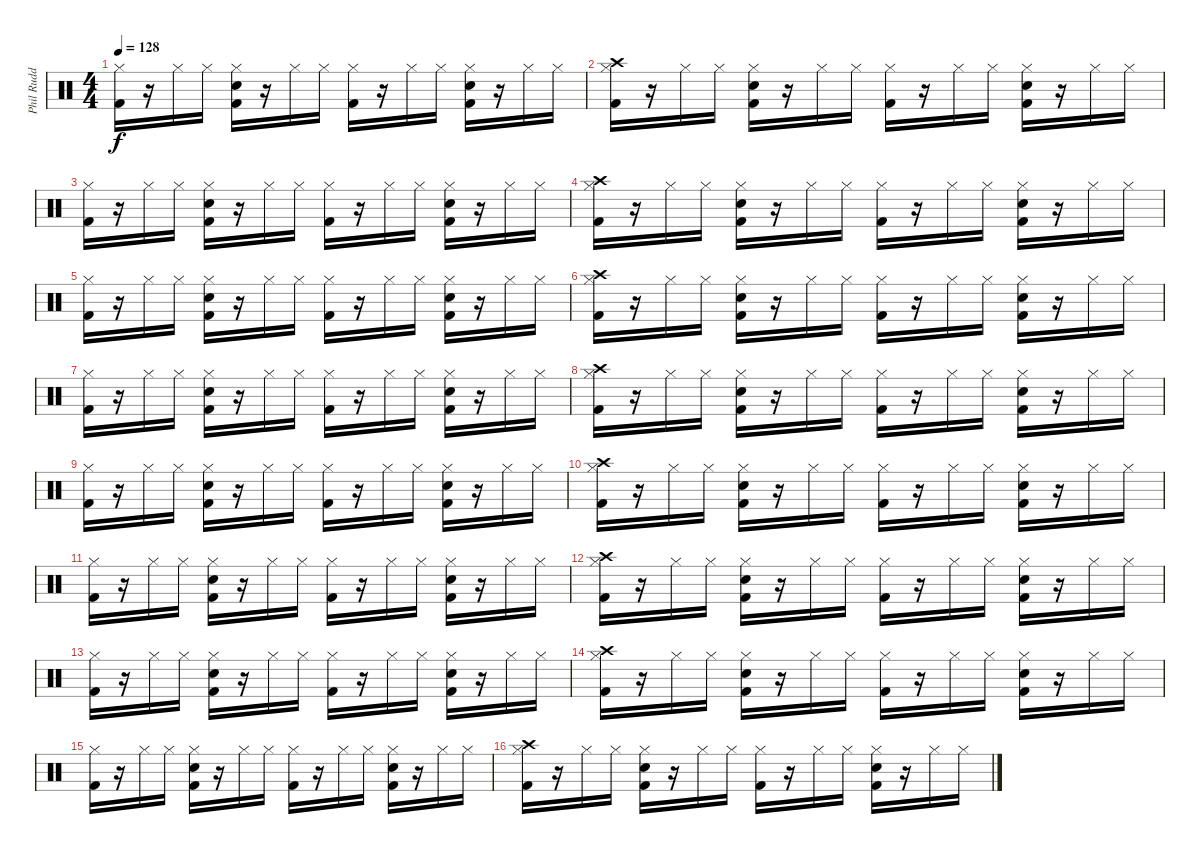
\track ("Phil Rudd" "Phil Rudd") {instrument percussion}
\staff {score}
\articulation defaults
\ts (4 4)
\tempo 128
\clef neutral
\ks c
("Hi-Hat (closed)" "Kick (hit) 2").16{dy f} r.16 "Hi-Hat (closed)".16 "Hi-Hat (closed)".16 ("Hi-Hat (closed)" "Snare (hit) 2" "Kick (hit) 2").16 r.16 "Hi-Hat (closed)".16 "Hi-Hat (closed)".16 ("Hi-Hat (closed)" "Kick (hit) 2").16 r.16 "Hi-Hat (closed)".16 "Hi-Hat (closed)".16 ("Hi-Hat (closed)" "Snare (hit) 2" "Kick (hit) 2").16 r.16 "Hi-Hat (closed)".16 "Hi-Hat (closed)".16 |
("Hi-Hat (closed)" "Crash high (hit)" "Kick (hit) 2").16 r.16 "Hi-Hat (closed)".16 "Hi-Hat (closed)".16 ("Hi-Hat (closed)" "Snare (hit) 2" "Kick (hit) 2").16 r.16 "Hi-Hat (closed)".16 "Hi-Hat (closed)".16 ("Hi-Hat (closed)" "Kick (hit) 2").16 r.16 "Hi-Hat (closed)".16 "Hi-Hat (closed)".16 ("Hi-Hat (closed)" "Snare (hit) 2" "Kick (hit) 2").16 r.16 "Hi-Hat (closed)".16 "Hi-Hat (closed)".16 |
("Hi-Hat (closed)" "Kick (hit) 2").16 r.16 "Hi-Hat (closed)".16 "Hi-Hat (closed)".16 ("Hi-Hat (closed)" "Snare (hit) 2" "Kick (hit) 2").16 r.16 "Hi-Hat (closed)".16 "Hi-Hat (closed)".16 ("Hi-Hat (closed)" "Kick (hit) 2").16 r.16 "Hi-Hat (closed)".16 "Hi-Hat (closed)".16 ("Hi-Hat (closed)" "Snare (hit) 2" "Kick (hit) 2").16 r.16 "Hi-Hat (closed)".16 "Hi-Hat (closed)".16 |
("Hi-Hat (closed)" "Crash high (hit)" "Kick (hit) 2").16 r.16 "Hi-Hat (closed)".16 "Hi-Hat (closed)".16 ("Hi-Hat (closed)" "Snare (hit) 2" "Kick (hit) 2").16 r.16 "Hi-Hat (closed)".16 "Hi-Hat (closed)".16 ("Hi-Hat (closed)" "Kick (hit) 2").16 r.16 "Hi-Hat (closed)".16 "Hi-Hat (closed)".16 ("Hi-Hat (closed)" "Snare (hit) 2" "Kick (hit) 2").16 r.16 "Hi-Hat (closed)".16 "Hi-Hat (closed)".16 |
("Hi-Hat (closed)" "Kick (hit) 2").16 r.16 "Hi-Hat (closed)".16 "Hi-Hat (closed)".16 ("Hi-Hat (closed)" "Snare (hit) 2" "Kick (hit) 2").16 r.16 "Hi-Hat (closed)".16 "Hi-Hat (closed)".16 ("Hi-Hat (closed)" "Kick (hit) 2").16 r.16 "Hi-Hat (closed)".16 "Hi-Hat (closed)".16 ("Hi-Hat (closed)" "Snare (hit) 2" "Kick (hit) 2").16 r.16 "Hi-Hat (closed)".16 "Hi-Hat (closed)".16 |
("Hi-Hat (closed)" "Crash high (hit)" "Kick (hit) 2").16 r.16 "Hi-Hat (closed)".16 "Hi-Hat (closed)".16 ("Hi-Hat (closed)" "Snare (hit) 2" "Kick (hit) 2").16 r.16 "Hi-Hat (closed)".16 "Hi-Hat (closed)".16 ("Hi-Hat (closed)" "Kick (hit) 2").16 r.16 "Hi-Hat (closed)".16 "Hi-Hat (closed)".16 ("Hi-Hat (closed)" "Snare (hit) 2" "Kick (hit) 2").16 r.16 "Hi-Hat (closed)".16 "Hi-Hat (closed)".16 |
("Hi-Hat (closed)" "Kick (hit) 2").16 r.16 "Hi-Hat (closed)".16 "Hi-Hat (closed)".16 ("Hi-Hat (closed)" "Snare (hit) 2" "Kick (hit) 2").16 r.16 "Hi-Hat (closed)".16 "Hi-Hat (closed)".16 ("Hi-Hat (closed)" "Kick (hit) 2").16 r.16 "Hi-Hat (closed)".16 "Hi-Hat (closed)".16 ("Hi-Hat (closed)" "Snare (hit) 2" "Kick (hit) 2").16 r.16 "Hi-Hat (closed)".16 "Hi-Hat (closed)".16 |
("Hi-Hat (closed)" "Crash high (hit)" "Kick (hit) 2").16 r.16 "Hi-Hat (closed)".16 "Hi-Hat (closed)".16 ("Hi-Hat (closed)" "Snare (hit) 2" "Kick (hit) 2").16 r.16 "Hi-Hat (closed)".16 "Hi-Hat (closed)".16 ("Hi-Hat (closed)" "Kick (hit) 2").16 r.16 "Hi-Hat (closed)".16 "Hi-Hat (closed)".16 ("Hi-Hat (closed)" "Snare (hit) 2" "Kick (hit) 2").16 r.16 "Hi-Hat (closed)".16 "Hi-Hat (closed)".16 |
("Hi-Hat (closed)" "Kick (hit) 2").16 r.16 "Hi-Hat (closed)".16 "Hi-Hat (closed)".16 ("Hi-Hat (closed)" "Snare (hit) 2" "Kick (hit) 2").16 r.16 "Hi-Hat (closed)".16 "Hi-Hat (closed)".16 ("Hi-Hat (closed)" "Kick (hit) 2").16 r.16 "Hi-Hat (closed)".16 "Hi-Hat (closed)".16 ("Hi-Hat (closed)" "Snare (hit) 2" "Kick (hit) 2").16 r.16 "Hi-Hat (closed)".16 "Hi-Hat (closed)".16 |
("Hi-Hat (closed)" "Crash high (hit)" "Kick (hit) 2").16 r.16 "Hi-Hat (closed)".16 "Hi-Hat (closed)".16 ("Hi-Hat (closed)" "Snare (hit) 2" "Kick (hit) 2").16 r.16 "Hi-Hat (closed)".16 "Hi-Hat (closed)".16 ("Hi-Hat (closed)" "Kick (hit) 2").16 r.16 "Hi-Hat (closed)".16 "Hi-Hat (closed)".16 ("Hi-Hat (closed)" "Snare (hit) 2" "Kick (hit) 2").16 r.16 "Hi-Hat (closed)".16 "Hi-Hat (closed)".16 |
("Hi-Hat (closed)" "Kick (hit) 2").16 r.16 "Hi-Hat (closed)".16 "Hi-Hat (closed)".16 ("Hi-Hat (closed)" "Snare (hit) 2" "Kick (hit) 2").16 r.16 "Hi-Hat (closed)".16 "Hi-Hat (closed)".16 ("Hi-Hat (closed)" "Kick (hit) 2").16 r.16 "Hi-Hat (closed)".16 "Hi-Hat (closed)".16 ("Hi-Hat (closed)" "Snare (hit) 2" "Kick (hit) 2").16 r.16 "Hi-Hat (closed)".16 "Hi-Hat (closed)".16 |
("Hi-Hat (closed)" "Crash high (hit)" "Kick (hit) 2").16 r.16 "Hi-Hat (closed)".16 "Hi-Hat (closed)".16 ("Hi-Hat (closed)" "Snare (hit) 2" "Kick (hit) 2").16 r.16 "Hi-Hat (closed)".16 "Hi-Hat (closed)".16 ("Hi-Hat (closed)" "Kick (hit) 2").16 r.16 "Hi-Hat (closed)".16 "Hi-Hat (closed)".16 ("Hi-Hat (closed)" "Snare (hit) 2" "Kick (hit) 2").16 r.16 "Hi-Hat (closed)".16 "Hi-Hat (closed)".16 |
("Hi-Hat (closed)" "Kick (hit) 2").16 r.16 "Hi-Hat (closed)".16 "Hi-Hat (closed)".16 ("Hi-Hat (closed)" "Snare (hit) 2" "Kick (hit) 2").16 r.16 "Hi-Hat (closed)".16 "Hi-Hat (closed)".16 ("Hi-Hat (closed)" "Kick (hit) 2").16 r.16 "Hi-Hat (closed)".16 "Hi-Hat (closed)".16 ("Hi-Hat (closed)" "Snare (hit) 2" "Kick (hit) 2").16 r.16 "Hi-Hat (closed)".16 "Hi-Hat (closed)".16 |
("Hi-Hat (closed)" "Crash high (hit)" "Kick (hit) 2").16 r.16 "Hi-Hat (closed)".16 "Hi-Hat (closed)".16 ("Hi-Hat (closed)" "Snare (hit) 2" "Kick (hit) 2").16 r.16 "Hi-Hat (closed)".16 "Hi-Hat (closed)".16 ("Hi-Hat (closed)" "Kick (hit) 2").16 r.16 "Hi-Hat (closed)".16 "Hi-Hat (closed)".16 ("Hi-Hat (closed)" "Snare (hit) 2" "Kick (hit) 2").16 r.16 "Hi-Hat (closed)".16 "Hi-Hat (closed)".16 |
("Hi-Hat (closed)" "Kick (hit) 2").16 r.16 "Hi-Hat (closed)".16 "Hi-Hat (closed)".16 ("Hi-Hat (closed)" "Snare (hit) 2" "Kick (hit) 2").16 r.16 "Hi-Hat (closed)".16 "Hi-Hat (closed)".16 ("Hi-Hat (closed)" "Kick (hit) 2").16 r.16 "Hi-Hat (closed)".16 "Hi-Hat (closed)".16 ("Hi-Hat (closed)" "Snare (hit) 2" "Kick (hit) 2").16 r.16 "Hi-Hat (closed)".16 "Hi-Hat (closed)".16 |
("Hi-Hat (closed)" "Crash high (hit)" "Kick (hit) 2").16 r.16 "Hi-Hat (closed)".16 "Hi-Hat (closed)".16 ("Hi-Hat (closed)" "Snare (hit) 2" "Kick (hit) 2").16 r.16 "Hi-Hat (closed)".16 "Hi-Hat (closed)".16 ("Hi-Hat (closed)" "Kick (hit) 2").16 r.16 "Hi-Hat (closed)".16 "Hi-Hat (closed)".16 ("Hi-Hat (closed)" "Snare (hit) 2" "Kick (hit) 2").16 r.16 "Hi-Hat (closed)".16 "Hi-Hat (closed)".16
